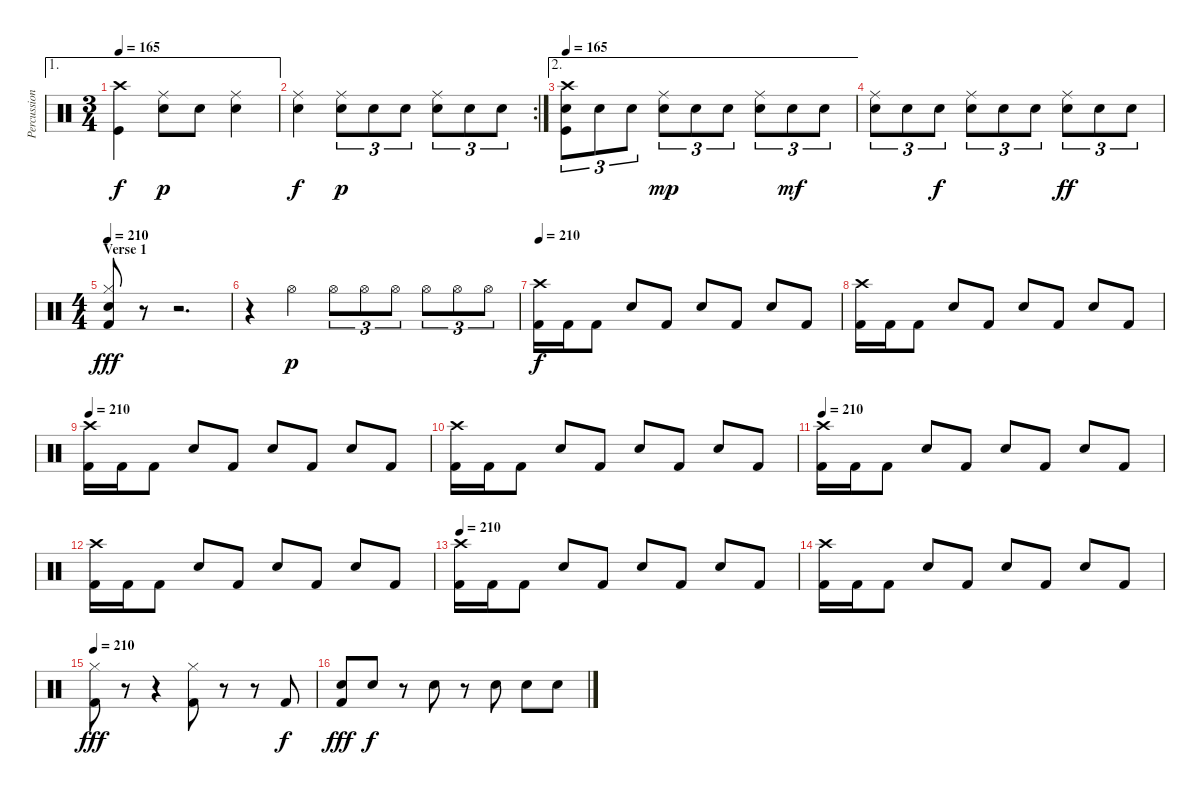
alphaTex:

\track ("Percussion" "Percussion") {instrument percussion}
\staff {score}
\articulation defaults
\ae 1
\ts (3 4)
\tempo 165
\clef neutral
\ks c
("Crash high (hit)" "Kick (hit)").4{dy f} ("Ride (middle)" "Snare (hit) 2").8{dy p} "Snare (hit) 2".8 ("Ride (middle)" "Snare (hit) 2").4 |
\rc 2
("Ride (middle)" "Electric Snare (hit)").4{dy f} ("Ride (middle)" "Snare (hit) 2").8{tu (3 2) dy p} "Snare (hit) 2".8{tu (3 2)} "Snare (hit) 2".8{tu (3 2)} ("Ride (middle)" "Snare (hit) 2").8{tu (3 2)} "Snare (hit) 2".8{tu (3 2)} "Snare (hit) 2".8{tu (3 2)} |
\ae 2
\tempo 165
("Crash high (hit)" "Snare (hit) 2" "Kick (hit)").8{tu (3 2)} "Snare (hit) 2".8{tu (3 2)} "Snare (hit) 2".8{tu (3 2)} ("Ride (middle)" "Snare (hit) 2").8{tu (3 2) dy mp} "Snare (hit) 2".8{tu (3 2)} "Snare (hit) 2".8{tu (3 2)} ("Ride (middle)" "Snare (hit) 2").8{tu (3 2)} "Snare (hit) 2".8{tu (3 2) dy mf} "Snare (hit) 2".8{tu (3 2)} |
("Ride (middle)" "Snare (hit) 2").8{tu (3 2)} "Snare (hit) 2".8{tu (3 2)} "Snare (hit) 2".8{tu (3 2) dy f} ("Ride (middle)" "Snare (hit) 2").8{tu (3 2)} "Snare (hit) 2".8{tu (3 2)} "Snare (hit) 2".8{tu (3 2)} ("Ride (middle)" "Snare (hit) 2").8{tu (3 2) dy ff} "Snare (hit) 2".8{tu (3 2)} "Snare (hit) 2".8{tu (3 2)} |
\ts (4 4)
\section ("" "Verse 1")
\tempo 210
("Hi-Hat (closed)" "Snare (hit) 2" "Kick (hit) 2").8{dy fff} r.8 r.2{d} |
r.4 "Hi-Hat (open)".4{dy p} "Hi-Hat (open)".8{tu (3 2)} "Hi-Hat (open)".8{tu (3 2)} "Hi-Hat (open)".8{tu (3 2)} "Hi-Hat (open)".8{tu (3 2)} "Hi-Hat (open)".8{tu (3 2)} "Hi-Hat (open)".8{tu (3 2)} |
\tempo 210
("Crash high (hit)" "Kick (hit) 2").16{dy f} "Kick (hit) 2".16 "Kick (hit) 2".8 "Electric Snare (hit)".8 "Kick (hit) 2".8 "Electric Snare (hit)".8 "Kick (hit) 2".8 "Electric Snare (hit)".8 "Kick (hit) 2".8 |
("Crash high (hit)" "Kick (hit) 2").16 "Kick (hit) 2".16 "Kick (hit) 2".8 "Electric Snare (hit)".8 "Kick (hit) 2".8 "Electric Snare (hit)".8 "Kick (hit) 2".8 "Electric Snare (hit)".8 "Kick (hit) 2".8 |
\tempo 210
("Crash high (hit)" "Kick (hit) 2").16 "Kick (hit) 2".16 "Kick (hit) 2".8 "Electric Snare (hit)".8 "Kick (hit) 2".8 "Electric Snare (hit)".8 "Kick (hit) 2".8 "Electric Snare (hit)".8 "Kick (hit) 2".8 |
("Crash high (hit)" "Kick (hit) 2").16 "Kick (hit) 2".16 "Kick (hit) 2".8 "Electric Snare (hit)".8 "Kick (hit) 2".8 "Electric Snare (hit)".8 "Kick (hit) 2".8 "Electric Snare (hit)".8 "Kick (hit) 2".8 |
\tempo 210
("Crash high (hit)" "Kick (hit) 2").16 "Kick (hit) 2".16 "Kick (hit) 2".8 "Electric Snare (hit)".8 "Kick (hit) 2".8 "Electric Snare (hit)".8 "Kick (hit) 2".8 "Electric Snare (hit)".8 "Kick (hit) 2".8 |
("Crash high (hit)" "Kick (hit) 2").16 "Kick (hit) 2".16 "Kick (hit) 2".8 "Electric Snare (hit)".8 "Kick (hit) 2".8 "Electric Snare (hit)".8 "Kick (hit) 2".8 "Electric Snare (hit)".8 "Kick (hit) 2".8 |
\tempo 210
("Crash high (hit)" "Kick (hit) 2").16 "Kick (hit) 2".16 "Kick (hit) 2".8 "Electric Snare (hit)".8 "Kick (hit) 2".8 "Electric Snare (hit)".8 "Kick (hit) 2".8 "Electric Snare (hit)".8 "Kick (hit) 2".8 |
("Crash high (hit)" "Kick (hit) 2").16 "Kick (hit) 2".16 "Kick (hit) 2".8 "Electric Snare (hit)".8 "Kick (hit) 2".8 "Electric Snare (hit)".8 "Kick (hit) 2".8 "Electric Snare (hit)".8 "Kick (hit) 2".8 |
\tempo 210
("Hi-Hat (closed)" "Kick (hit) 2").8{dy fff} r.8 r.4 ("Hi-Hat (closed)" "Kick (hit) 2").8 r.8 r.8 "Kick (hit) 2".8{dy f} |
("Electric Snare (hit)" "Kick (hit) 2").8{dy fff} "Electric Snare (hit)".8{dy f} r.8 "Electric Snare (hit)".8 r.8 "Electric Snare (hit)".8 "Electric Snare (hit)".8 "Electric Snare (hit)".8
